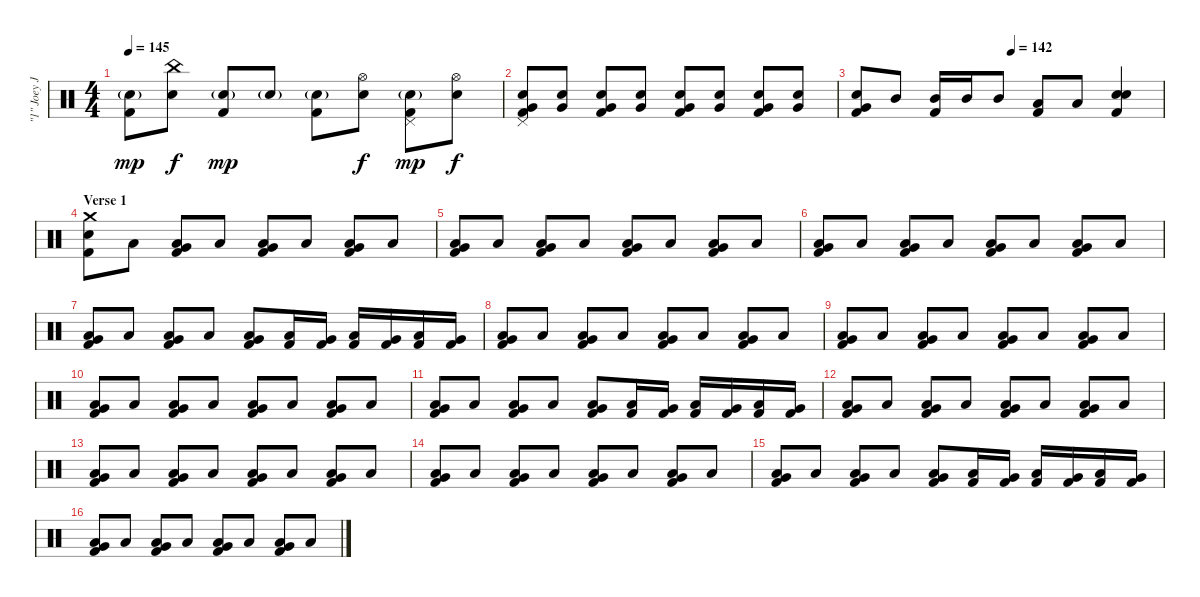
\track ("\"1\" Joey Jordison (Drums)" "\"1\" Joey J") {instrument percussion}
\staff {score}
\articulation defaults
\ts (4 4)
\tempo 145
\clef neutral
\ks c
("Electric Snare (hit)"{g} "Kick (hit) 2").8{dy mp} ("China (hit)" "Electric Snare (hit)").8{dy f} ("Electric Snare (hit)"{g} "Kick (hit) 2").8{dy mp} "Electric Snare (hit)"{g}.8 ("Electric Snare (hit)"{g} "Kick (hit) 2").8 ("Hi-Hat (open)" "Electric Snare (hit)").8{dy f} ("Pedal Hi-Hat (hit)" "Electric Snare (hit)"{g} "Kick (hit) 2").8{dy mp} ("Hi-Hat (open)" "Electric Snare (hit)").8{dy f} |
("Pedal Hi-Hat (hit)" "Electric Snare (hit)" "Very Low Tom (hit)" "Kick (hit) 2").8 ("Electric Snare (hit)" "Very Low Tom (hit)").8 ("Electric Snare (hit)" "Very Low Tom (hit)" "Kick (hit) 2").8 ("Electric Snare (hit)" "Very Low Tom (hit)").8 ("Electric Snare (hit)" "Very Low Tom (hit)" "Kick (hit) 2").8 ("Electric Snare (hit)" "Very Low Tom (hit)").8 ("Electric Snare (hit)" "Very Low Tom (hit)" "Kick (hit) 2").8 ("Electric Snare (hit)" "Very Low Tom (hit)").8 |
\tempo (142 0.5)
("Electric Snare (hit)" "Very Low Tom (hit)" "Kick (hit) 2").8 "Mid Tom (hit)".8 ("Mid Tom (hit)" "Kick (hit) 2").16 "Mid Tom (hit)".16 "Mid Tom (hit)".8 ("Low Tom (hit)" "Kick (hit) 2").8 "Low Tom (hit)".8 ("Electric Snare (hit)" "Electric Snare (hit)" "Kick (hit) 2").4{bd 60} |
\section ("" "Verse 1")
("Crash medium (hit)" "Electric Snare (hit)" "Kick (hit) 2").8 "Low Floor Tom (hit)".8 ("Very Low Tom (hit)" "Low Floor Tom (hit)" "Kick (hit) 2").8 "Low Floor Tom (hit)".8 ("Very Low Tom (hit)" "Low Floor Tom (hit)" "Kick (hit) 2").8 "Low Floor Tom (hit)".8 ("Very Low Tom (hit)" "Low Floor Tom (hit)" "Kick (hit) 2").8 "Low Floor Tom (hit)".8 |
("Very Low Tom (hit)" "Low Floor Tom (hit)" "Kick (hit) 2").8 "Low Floor Tom (hit)".8 ("Very Low Tom (hit)" "Low Floor Tom (hit)" "Kick (hit) 2").8 "Low Floor Tom (hit)".8 ("Very Low Tom (hit)" "Low Floor Tom (hit)" "Kick (hit) 2").8 "Low Floor Tom (hit)".8 ("Very Low Tom (hit)" "Low Floor Tom (hit)" "Kick (hit) 2").8 "Low Floor Tom (hit)".8 |
("Very Low Tom (hit)" "Low Floor Tom (hit)" "Kick (hit) 2").8 "Low Floor Tom (hit)".8 ("Very Low Tom (hit)" "Low Floor Tom (hit)" "Kick (hit) 2").8 "Low Floor Tom (hit)".8 ("Very Low Tom (hit)" "Low Floor Tom (hit)" "Kick (hit) 2").8 "Low Floor Tom (hit)".8 ("Very Low Tom (hit)" "Low Floor Tom (hit)" "Kick (hit) 2").8 "Low Floor Tom (hit)".8 |
("Very Low Tom (hit)" "Low Floor Tom (hit)" "Kick (hit) 2").8 "Low Floor Tom (hit)".8 ("Very Low Tom (hit)" "Low Floor Tom (hit)" "Kick (hit) 2").8 "Low Floor Tom (hit)".8 ("Very Low Tom (hit)" "Low Floor Tom (hit)" "Kick (hit) 2").8 ("Low Floor Tom (hit)" "Kick (hit) 2").16 ("Very Low Tom (hit)" "Kick (hit) 2").16 ("Low Floor Tom (hit)" "Kick (hit) 2").16 ("Very Low Tom (hit)" "Kick (hit) 2").16 ("Low Floor Tom (hit)" "Kick (hit) 2").16 ("Very Low Tom (hit)" "Kick (hit) 2").16 |
("Very Low Tom (hit)" "Low Floor Tom (hit)" "Kick (hit) 2").8 "Low Floor Tom (hit)".8 ("Very Low Tom (hit)" "Low Floor Tom (hit)" "Kick (hit) 2").8 "Low Floor Tom (hit)".8 ("Very Low Tom (hit)" "Low Floor Tom (hit)" "Kick (hit) 2").8 "Low Floor Tom (hit)".8 ("Very Low Tom (hit)" "Low Floor Tom (hit)" "Kick (hit) 2").8 "Low Floor Tom (hit)".8 |
("Very Low Tom (hit)" "Low Floor Tom (hit)" "Kick (hit) 2").8 "Low Floor Tom (hit)".8 ("Very Low Tom (hit)" "Low Floor Tom (hit)" "Kick (hit) 2").8 "Low Floor Tom (hit)".8 ("Very Low Tom (hit)" "Low Floor Tom (hit)" "Kick (hit) 2").8 "Low Floor Tom (hit)".8 ("Very Low Tom (hit)" "Low Floor Tom (hit)" "Kick (hit) 2").8 "Low Floor Tom (hit)".8 |
("Very Low Tom (hit)" "Low Floor Tom (hit)" "Kick (hit) 2").8 "Low Floor Tom (hit)".8 ("Very Low Tom (hit)" "Low Floor Tom (hit)" "Kick (hit) 2").8 "Low Floor Tom (hit)".8 ("Very Low Tom (hit)" "Low Floor Tom (hit)" "Kick (hit) 2").8 "Low Floor Tom (hit)".8 ("Very Low Tom (hit)" "Low Floor Tom (hit)" "Kick (hit) 2").8 "Low Floor Tom (hit)".8 |
("Very Low Tom (hit)" "Low Floor Tom (hit)" "Kick (hit) 2").8 "Low Floor Tom (hit)".8 ("Very Low Tom (hit)" "Low Floor Tom (hit)" "Kick (hit) 2").8 "Low Floor Tom (hit)".8 ("Very Low Tom (hit)" "Low Floor Tom (hit)" "Kick (hit) 2").8 ("Low Floor Tom (hit)" "Kick (hit) 2").16 ("Very Low Tom (hit)" "Kick (hit) 2").16 ("Low Floor Tom (hit)" "Kick (hit) 2").16 ("Very Low Tom (hit)" "Kick (hit) 2").16 ("Low Floor Tom (hit)" "Kick (hit) 2").16 ("Very Low Tom (hit)" "Kick (hit) 2").16 |
("Very Low Tom (hit)" "Low Floor Tom (hit)" "Kick (hit) 2").8 "Low Floor Tom (hit)".8 ("Very Low Tom (hit)" "Low Floor Tom (hit)" "Kick (hit) 2").8 "Low Floor Tom (hit)".8 ("Very Low Tom (hit)" "Low Floor Tom (hit)" "Kick (hit) 2").8 "Low Floor Tom (hit)".8 ("Very Low Tom (hit)" "Low Floor Tom (hit)" "Kick (hit) 2").8 "Low Floor Tom (hit)".8 |
("Very Low Tom (hit)" "Low Floor Tom (hit)" "Kick (hit) 2").8 "Low Floor Tom (hit)".8 ("Very Low Tom (hit)" "Low Floor Tom (hit)" "Kick (hit) 2").8 "Low Floor Tom (hit)".8 ("Very Low Tom (hit)" "Low Floor Tom (hit)" "Kick (hit) 2").8 "Low Floor Tom (hit)".8 ("Very Low Tom (hit)" "Low Floor Tom (hit)" "Kick (hit) 2").8 "Low Floor Tom (hit)".8 |
("Very Low Tom (hit)" "Low Floor Tom (hit)" "Kick (hit) 2").8 "Low Floor Tom (hit)".8 ("Very Low Tom (hit)" "Low Floor Tom (hit)" "Kick (hit) 2").8 "Low Floor Tom (hit)".8 ("Very Low Tom (hit)" "Low Floor Tom (hit)" "Kick (hit) 2").8 "Low Floor Tom (hit)".8 ("Very Low Tom (hit)" "Low Floor Tom (hit)" "Kick (hit) 2").8 "Low Floor Tom (hit)".8 |
("Very Low Tom (hit)" "Low Floor Tom (hit)" "Kick (hit) 2").8 "Low Floor Tom (hit)".8 ("Very Low Tom (hit)" "Low Floor Tom (hit)" "Kick (hit) 2").8 "Low Floor Tom (hit)".8 ("Very Low Tom (hit)" "Low Floor Tom (hit)" "Kick (hit) 2").8 ("Low Floor Tom (hit)" "Kick (hit) 2").16 ("Very Low Tom (hit)" "Kick (hit) 2").16 ("Low Floor Tom (hit)" "Kick (hit) 2").16 ("Very Low Tom (hit)" "Kick (hit) 2").16 ("Low Floor Tom (hit)" "Kick (hit) 2").16 ("Very Low Tom (hit)" "Kick (hit) 2").16 |
("Very Low Tom (hit)" "Low Floor Tom (hit)" "Kick (hit) 2").8 "Low Floor Tom (hit)".8 ("Very Low Tom (hit)" "Low Floor Tom (hit)" "Kick (hit) 2").8 "Low Floor Tom (hit)".8 ("Very Low Tom (hit)" "Low Floor Tom (hit)" "Kick (hit) 2").8 "Low Floor Tom (hit)".8 ("Very Low Tom (hit)" "Low Floor Tom (hit)" "Kick (hit) 2").8 "Low Floor Tom (hit)".8
